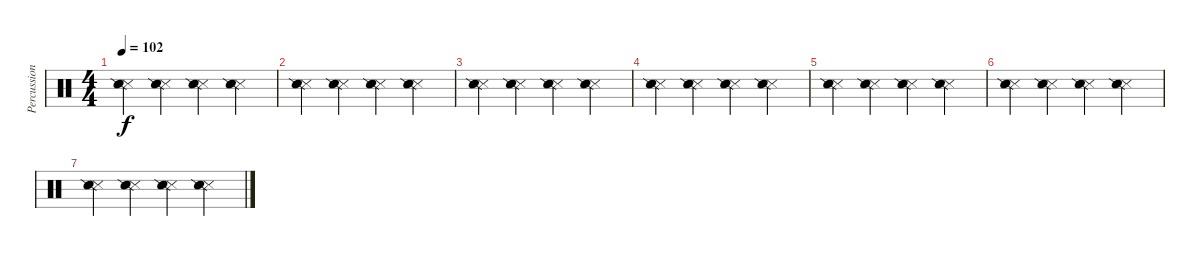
\track ("Percussion" "Percussion") {instrument percussion}
\staff {score}
\articulation defaults
\ts (4 4)
\tempo 102
\clef neutral
\ks c
("Metronome (hit)" "Snare (side stick) 2").4{dy f} ("Metronome (hit)" "Snare (side stick) 2").4 ("Metronome (hit)" "Snare (side stick) 2").4 ("Metronome (hit)" "Snare (side stick) 2").4 |
("Metronome (hit)" "Snare (side stick) 2").4 ("Metronome (hit)" "Snare (side stick) 2").4 ("Metronome (hit)" "Snare (side stick) 2").4 ("Metronome (hit)" "Snare (side stick) 2").4 |
("Metronome (hit)" "Snare (side stick) 2").4 ("Metronome (hit)" "Snare (side stick) 2").4 ("Metronome (hit)" "Snare (side stick) 2").4 ("Metronome (hit)" "Snare (side stick) 2").4 |
("Metronome (hit)" "Snare (side stick) 2").4 ("Metronome (hit)" "Snare (side stick) 2").4 ("Metronome (hit)" "Snare (side stick) 2").4 ("Metronome (hit)" "Snare (side stick) 2").4 |
("Metronome (hit)" "Snare (side stick) 2").4 ("Metronome (hit)" "Snare (side stick) 2").4 ("Metronome (hit)" "Snare (side stick) 2").4 ("Metronome (hit)" "Snare (side stick) 2").4 |
("Metronome (hit)" "Snare (side stick) 2").4 ("Metronome (hit)" "Snare (side stick) 2").4 ("Metronome (hit)" "Snare (side stick) 2").4 ("Metronome (hit)" "Snare (side stick) 2").4 |
("Metronome (hit)" "Snare (side stick) 2").4 ("Metronome (hit)" "Snare (side stick) 2").4 ("Metronome (hit)" "Snare (side stick) 2").4 ("Metronome (hit)" "Snare (side stick) 2").4
